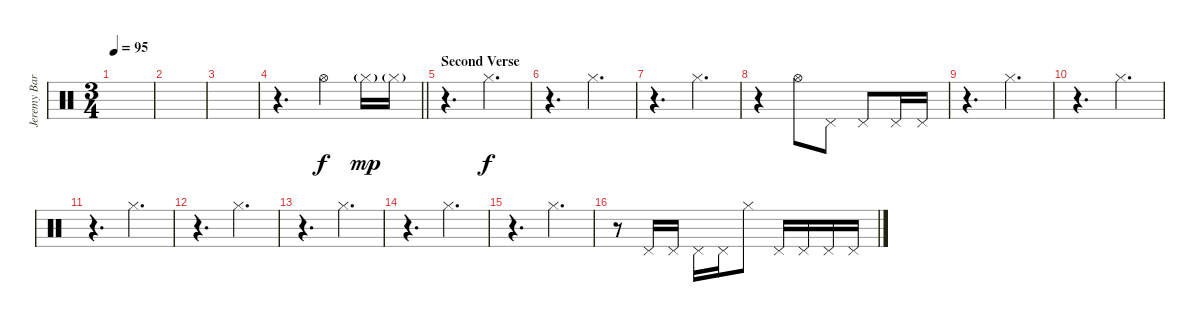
\track ("Jeremy Barnes - Drums" "Jeremy Bar") {instrument percussion}
\staff {score}
\articulation defaults
\ts (3 4)
\tempo 95
\clef neutral
\ks c
|
|
|
\barLineRight lightlight
r.4{d} "Hi-Hat (open)".4 "Hi-Hat (closed)"{g}.16{dy mp} "Hi-Hat (closed)"{g}.16 |
\section ("" "Second Verse")
r.4{d} "Hi-Hat (closed)".4{d dy f} |
r.4{d} "Hi-Hat (closed)".4{d} |
r.4{d} "Hi-Hat (closed)".4{d} |
r.4 "Hi-Hat (open)".8 "Pedal Hi-Hat (hit)".8 "Pedal Hi-Hat (hit)".8 "Pedal Hi-Hat (hit)".16 "Pedal Hi-Hat (hit)".16 |
r.4{d} "Hi-Hat (closed)".4{d} |
r.4{d} "Hi-Hat (closed)".4{d} |
r.4{d} "Hi-Hat (closed)".4{d} |
r.4{d} "Hi-Hat (closed)".4{d} |
r.4{d} "Hi-Hat (closed)".4{d} |
r.4{d} "Hi-Hat (closed)".4{d} |
r.4{d} "Hi-Hat (closed)".4{d} |
r.8 "Pedal Hi-Hat (hit)".16 "Pedal Hi-Hat (hit)".16 "Pedal Hi-Hat (hit)".16 "Pedal Hi-Hat (hit)".16 "Hi-Hat (closed)".8 "Pedal Hi-Hat (hit)".16 "Pedal Hi-Hat (hit)".16 "Pedal Hi-Hat (hit)".16 "Pedal Hi-Hat (hit)".16
